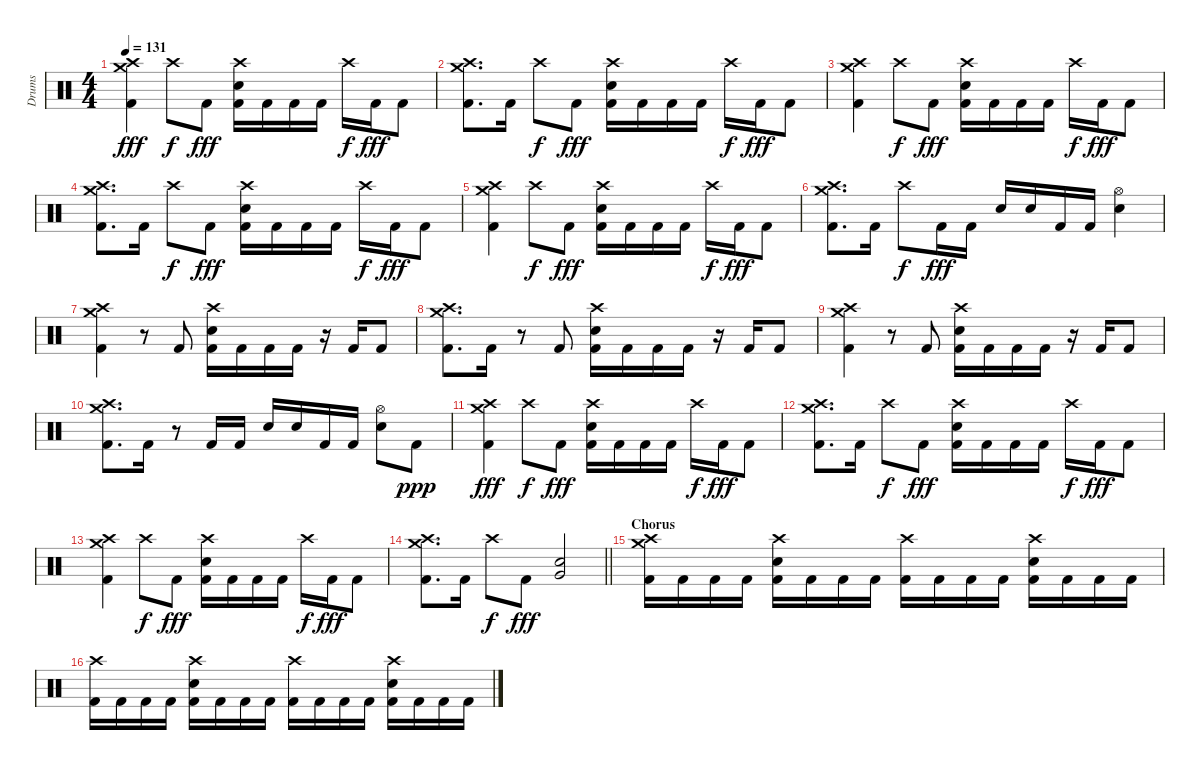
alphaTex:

\track ("Drums" "Drums") {instrument percussion}
\staff {score}
\articulation defaults
\ts (4 4)
\tempo 131
\clef neutral
\ks c
("Crash medium (hit)" "Crash high (hit)" "Kick (hit) 2").4{dy fff} "Crash high (hit)".8{dy f} "Kick (hit) 2".8{dy fff} ("Crash high (hit)" "Electric Snare (hit)" "Kick (hit) 2").16 "Kick (hit) 2".16 "Kick (hit) 2".16 "Kick (hit) 2".16 "Crash high (hit)".16{dy f} "Kick (hit) 2".16{dy fff} "Kick (hit) 2".8 |
("Crash medium (hit)" "Crash high (hit)" "Kick (hit) 2").8{d} "Kick (hit) 2".16 "Crash high (hit)".8{dy f} "Kick (hit) 2".8{dy fff} ("Crash high (hit)" "Electric Snare (hit)" "Kick (hit) 2").16 "Kick (hit) 2".16 "Kick (hit) 2".16 "Kick (hit) 2".16 "Crash high (hit)".16{dy f} "Kick (hit) 2".16{dy fff} "Kick (hit) 2".8 |
("Crash medium (hit)" "Crash high (hit)" "Kick (hit) 2").4 "Crash high (hit)".8{dy f} "Kick (hit) 2".8{dy fff} ("Crash high (hit)" "Electric Snare (hit)" "Kick (hit) 2").16 "Kick (hit) 2".16 "Kick (hit) 2".16 "Kick (hit) 2".16 "Crash high (hit)".16{dy f} "Kick (hit) 2".16{dy fff} "Kick (hit) 2".8 |
("Crash medium (hit)" "Crash high (hit)" "Kick (hit) 2").8{d} "Kick (hit) 2".16 "Crash high (hit)".8{dy f} "Kick (hit) 2".8{dy fff} ("Crash high (hit)" "Electric Snare (hit)" "Kick (hit) 2").16 "Kick (hit) 2".16 "Kick (hit) 2".16 "Kick (hit) 2".16 "Crash high (hit)".16{dy f} "Kick (hit) 2".16{dy fff} "Kick (hit) 2".8 |
("Crash medium (hit)" "Crash high (hit)" "Kick (hit) 2").4 "Crash high (hit)".8{dy f} "Kick (hit) 2".8{dy fff} ("Crash high (hit)" "Electric Snare (hit)" "Kick (hit) 2").16 "Kick (hit) 2".16 "Kick (hit) 2".16 "Kick (hit) 2".16 "Crash high (hit)".16{dy f} "Kick (hit) 2".16{dy fff} "Kick (hit) 2".8 |
("Crash medium (hit)" "Crash high (hit)" "Kick (hit) 2").8{d} "Kick (hit) 2".16 "Crash high (hit)".8{dy f} "Kick (hit) 2".16{dy fff} "Kick (hit) 2".16 "Electric Snare (hit)".16 "Electric Snare (hit)".16 "Kick (hit) 2".16 "Kick (hit) 2".16 ("Hi-Hat (open)" "Electric Snare (hit)").4 |
("Crash medium (hit)" "Crash high (hit)" "Kick (hit) 2").4 r.8 "Kick (hit) 2".8 ("Crash high (hit)" "Electric Snare (hit)" "Kick (hit) 2").16 "Kick (hit) 2".16 "Kick (hit) 2".16 "Kick (hit) 2".16 r.16 "Kick (hit) 2".16 "Kick (hit) 2".8 |
("Crash medium (hit)" "Crash high (hit)" "Kick (hit) 2").8{d} "Kick (hit) 2".16 r.8 "Kick (hit) 2".8 ("Crash high (hit)" "Electric Snare (hit)" "Kick (hit) 2").16 "Kick (hit) 2".16 "Kick (hit) 2".16 "Kick (hit) 2".16 r.16 "Kick (hit) 2".16 "Kick (hit) 2".8 |
("Crash medium (hit)" "Crash high (hit)" "Kick (hit) 2").4 r.8 "Kick (hit) 2".8 ("Crash high (hit)" "Electric Snare (hit)" "Kick (hit) 2").16 "Kick (hit) 2".16 "Kick (hit) 2".16 "Kick (hit) 2".16 r.16 "Kick (hit) 2".16 "Kick (hit) 2".8 |
("Crash medium (hit)" "Crash high (hit)" "Kick (hit) 2").8{d} "Kick (hit) 2".16 r.8 "Kick (hit) 2".16 "Kick (hit) 2".16 "Electric Snare (hit)".16 "Electric Snare (hit)".16 "Kick (hit) 2".16 "Kick (hit) 2".16 ("Hi-Hat (open)" "Electric Snare (hit)").8 "Kick (hit) 2".8{dy ppp} |
("Crash medium (hit)" "Crash high (hit)" "Kick (hit) 2").4{dy fff} "Crash high (hit)".8{dy f} "Kick (hit) 2".8{dy fff} ("Crash high (hit)" "Electric Snare (hit)" "Kick (hit) 2").16 "Kick (hit) 2".16 "Kick (hit) 2".16 "Kick (hit) 2".16 "Crash high (hit)".16{dy f} "Kick (hit) 2".16{dy fff} "Kick (hit) 2".8 |
("Crash medium (hit)" "Crash high (hit)" "Kick (hit) 2").8{d} "Kick (hit) 2".16 "Crash high (hit)".8{dy f} "Kick (hit) 2".8{dy fff} ("Crash high (hit)" "Electric Snare (hit)" "Kick (hit) 2").16 "Kick (hit) 2".16 "Kick (hit) 2".16 "Kick (hit) 2".16 "Crash high (hit)".16{dy f} "Kick (hit) 2".16{dy fff} "Kick (hit) 2".8 |
("Crash medium (hit)" "Crash high (hit)" "Kick (hit) 2").4 "Crash high (hit)".8{dy f} "Kick (hit) 2".8{dy fff} ("Crash high (hit)" "Electric Snare (hit)" "Kick (hit) 2").16 "Kick (hit) 2".16 "Kick (hit) 2".16 "Kick (hit) 2".16 "Crash high (hit)".16{dy f} "Kick (hit) 2".16{dy fff} "Kick (hit) 2".8 |
\barLineRight lightlight
("Crash medium (hit)" "Crash high (hit)" "Kick (hit) 2").8{d} "Kick (hit) 2".16 "Crash high (hit)".8{dy f} "Kick (hit) 2".8{dy fff} ("Very Low Tom (hit)" "Electric Snare (hit)").2 |
\section ("" "Chorus")
("Crash medium (hit)" "Crash high (hit)" "Kick (hit) 2").16 "Kick (hit) 2".16 "Kick (hit) 2".16 "Kick (hit) 2".16 ("Crash high (hit)" "Electric Snare (hit)" "Kick (hit) 2").16 "Kick (hit) 2".16 "Kick (hit) 2".16 "Kick (hit) 2".16 ("Crash high (hit)" "Kick (hit) 2").16 "Kick (hit) 2".16 "Kick (hit) 2".16 "Kick (hit) 2".16 ("Crash high (hit)" "Electric Snare (hit)" "Kick (hit) 2").16 "Kick (hit) 2".16 "Kick (hit) 2".16 "Kick (hit) 2".16 |
("Crash high (hit)" "Kick (hit) 2").16 "Kick (hit) 2".16 "Kick (hit) 2".16 "Kick (hit) 2".16 ("Crash high (hit)" "Electric Snare (hit)" "Kick (hit) 2").16 "Kick (hit) 2".16 "Kick (hit) 2".16 "Kick (hit) 2".16 ("Crash high (hit)" "Kick (hit) 2").16 "Kick (hit) 2".16 "Kick (hit) 2".16 "Kick (hit) 2".16 ("Crash high (hit)" "Electric Snare (hit)" "Kick (hit) 2").16 "Kick (hit) 2".16 "Kick (hit) 2".16 "Kick (hit) 2".16
